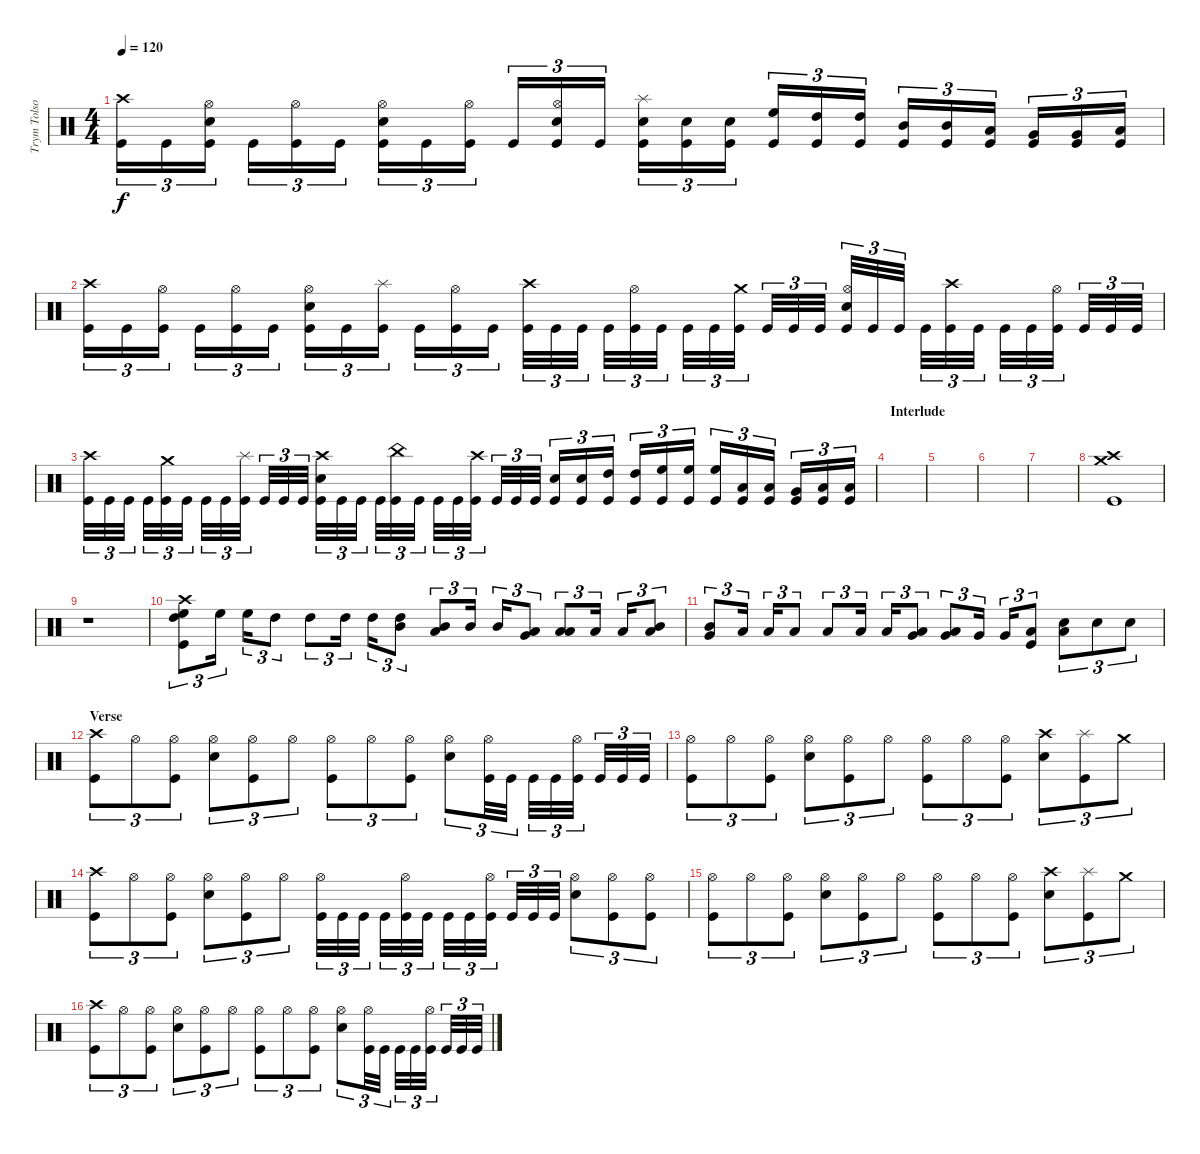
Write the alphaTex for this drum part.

\track ("Trym Tolson" "Trym Tolso") {instrument percussion}
\staff {score}
\articulation defaults
\ts (4 4)
\tempo 120
\clef neutral
\ks c
("Crash high (hit)" "Kick (hit)").16{tu (3 2) dy f} "Kick (hit)".16{tu (3 2)} ("Hi-Hat (open)" "Electric Snare (hit)" "Kick (hit)").16{tu (3 2)} "Kick (hit)".16{tu (3 2)} ("Hi-Hat (open)" "Kick (hit)").16{tu (3 2)} "Kick (hit)".16{tu (3 2)} ("Hi-Hat (open)" "Electric Snare (hit)" "Kick (hit)").16{tu (3 2)} "Kick (hit)".16{tu (3 2)} ("Hi-Hat (open)" "Kick (hit)").16{tu (3 2)} "Kick (hit)".16{tu (3 2)} ("Hi-Hat (open)" "Electric Snare (hit)" "Kick (hit)").16{tu (3 2)} "Kick (hit)".16{tu (3 2)} ("Splash (hit)" "Electric Snare (hit)" "Kick (hit)").16{tu (3 2)} ("Electric Snare (hit)" "Kick (hit)").16{tu (3 2)} ("Electric Snare (hit)" "Kick (hit)").16{tu (3 2)} ("High Floor Tom (hit)" "Kick (hit)").16{tu (3 2)} ("High Tom (hit)" "Kick (hit)").16{tu (3 2)} ("High Tom (hit)" "Kick (hit)").16{tu (3 2)} ("Mid Tom (hit)" "Kick (hit)").16{tu (3 2)} ("Mid Tom (hit)" "Kick (hit)").16{tu (3 2)} ("Low Tom (hit)" "Kick (hit)").16{tu (3 2)} ("Very Low Tom (hit)" "Kick (hit)").16{tu (3 2)} ("Very Low Tom (hit)" "Kick (hit)").16{tu (3 2)} ("Low Floor Tom (hit)" "Kick (hit)").16{tu (3 2)} |
("Crash high (hit)" "Kick (hit)").16{tu (3 2)} "Kick (hit)".16{tu (3 2)} ("Hi-Hat (open)" "Kick (hit)").16{tu (3 2)} "Kick (hit)".16{tu (3 2)} ("Hi-Hat (open)" "Kick (hit)").16{tu (3 2)} "Kick (hit)".16{tu (3 2)} ("Hi-Hat (open)" "Electric Snare (hit)" "Kick (hit)").16{tu (3 2)} "Kick (hit)".16{tu (3 2)} ("Splash (hit)" "Kick (hit)").16{tu (3 2)} "Kick (hit)".16{tu (3 2)} ("Hi-Hat (open)" "Kick (hit)").16{tu (3 2)} "Kick (hit)".16{tu (3 2)} ("Crash high (hit)" "Kick (hit)").32{tu (3 2)} "Kick (hit)".32{tu (3 2)} "Kick (hit)".32{tu (3 2)} "Kick (hit)".32{tu (3 2)} ("Hi-Hat (open)" "Kick (hit)").32{tu (3 2)} "Kick (hit)".32{tu (3 2)} "Kick (hit)".32{tu (3 2)} "Kick (hit)".32{tu (3 2)} ("Crash medium (hit)" "Kick (hit)").32{tu (3 2)} "Kick (hit)".32{tu (3 2)} "Kick (hit)".32{tu (3 2)} "Kick (hit)".32{tu (3 2)} ("Hi-Hat (open)" "Electric Snare (hit)" "Kick (hit)").32{tu (3 2)} "Kick (hit)".32{tu (3 2)} "Kick (hit)".32{tu (3 2)} "Kick (hit)".32{tu (3 2)} ("Crash high (hit)" "Kick (hit)").32{tu (3 2)} "Kick (hit)".32{tu (3 2)} "Kick (hit)".32{tu (3 2)} "Kick (hit)".32{tu (3 2)} ("Hi-Hat (open)" "Kick (hit)").32{tu (3 2)} "Kick (hit)".32{tu (3 2)} "Kick (hit)".32{tu (3 2)} "Kick (hit)".32{tu (3 2)} |
("Crash high (hit)" "Kick (hit)").32{tu (3 2)} "Kick (hit)".32{tu (3 2)} "Kick (hit)".32{tu (3 2)} "Kick (hit)".32{tu (3 2)} ("Crash medium (hit)" "Kick (hit)").32{tu (3 2)} "Kick (hit)".32{tu (3 2)} "Kick (hit)".32{tu (3 2)} "Kick (hit)".32{tu (3 2)} ("Splash (hit)" "Kick (hit)").32{tu (3 2)} "Kick (hit)".32{tu (3 2)} "Kick (hit)".32{tu (3 2)} "Kick (hit)".32{tu (3 2)} ("Crash high (hit)" "Electric Snare (hit)" "Kick (hit)").32{tu (3 2)} "Kick (hit)".32{tu (3 2)} "Kick (hit)".32{tu (3 2)} "Kick (hit)".32{tu (3 2)} ("China (hit)" "Kick (hit)").32{tu (3 2)} "Kick (hit)".32{tu (3 2)} "Kick (hit)".32{tu (3 2)} "Kick (hit)".32{tu (3 2)} ("Crash high (hit)" "Kick (hit)").32{tu (3 2)} "Kick (hit)".32{tu (3 2)} "Kick (hit)".32{tu (3 2)} "Kick (hit)".32{tu (3 2)} ("Electric Snare (hit)" "Kick (hit)").16{tu (3 2)} ("Electric Snare (hit)" "Kick (hit)").16{tu (3 2)} ("High Tom (hit)" "Kick (hit)").16{tu (3 2)} ("High Tom (hit)" "Kick (hit)").16{tu (3 2)} ("High Floor Tom (hit)" "Kick (hit)").16{tu (3 2)} ("High Floor Tom (hit)" "Kick (hit)").16{tu (3 2)} ("High Floor Tom (hit)" "Kick (hit)").16{tu (3 2)} ("Low Tom (hit)" "Kick (hit)").16{tu (3 2)} ("Low Tom (hit)" "Kick (hit)").16{tu (3 2)} ("Very Low Tom (hit)" "Kick (hit)").16{tu (3 2)} ("Low Floor Tom (hit)" "Kick (hit)").16{tu (3 2)} ("Low Floor Tom (hit)" "Kick (hit)").16{tu (3 2)} |
\section ("" "Interlude")
|
|
|
|
("Crash high (hit)" "Crash medium (hit)" "Kick (hit)").1 |
r.1 |
("Crash high (hit)" "High Tom (hit)" "High Floor Tom (hit)" "Kick (hit)").8{tu (3 2)} "High Floor Tom (hit)".16{tu (3 2)} "High Floor Tom (hit)".16{tu (3 2)} "High Tom (hit)".8{tu (3 2)} "High Tom (hit)".8{tu (3 2)} "High Tom (hit)".16{tu (3 2)} "High Tom (hit)".16{tu (3 2)} ("Mid Tom (hit)" "High Tom (hit)").8{tu (3 2)} ("Mid Tom (hit)" "Low Tom (hit)").8{tu (3 2)} "Mid Tom (hit)".16{tu (3 2)} "Mid Tom (hit)".16{tu (3 2)} ("Low Tom (hit)" "Very Low Tom (hit)").8{tu (3 2)} ("Low Tom (hit)" "Low Floor Tom (hit)").8{tu (3 2)} "Low Tom (hit)".16{tu (3 2)} "Low Tom (hit)".16{tu (3 2)} ("Mid Tom (hit)" "Low Tom (hit)").8{tu (3 2)} |
("Mid Tom (hit)" "Very Low Tom (hit)").8{tu (3 2)} "Low Tom (hit)".16{tu (3 2)} "Low Tom (hit)".16{tu (3 2)} "Low Tom (hit)".8{tu (3 2)} "Low Tom (hit)".8{tu (3 2)} "Low Tom (hit)".16{tu (3 2)} "Low Tom (hit)".16{tu (3 2)} ("Very Low Tom (hit)" "Low Floor Tom (hit)").8{tu (3 2)} ("Very Low Tom (hit)" "Low Tom (hit)").8{tu (3 2)} "Very Low Tom (hit)".16{tu (3 2)} "Very Low Tom (hit)".16{tu (3 2)} ("Low Floor Tom (hit)" "Kick (hit)").8{tu (3 2)} ("Low Floor Tom (hit)" "Electric Snare (hit)").8{tu (3 2)} "Electric Snare (hit)".8{tu (3 2)} "Electric Snare (hit)".8{tu (3 2)} |
\section ("" "Verse")
("Crash high (hit)" "Kick (hit)").8{tu (3 2)} "Hi-Hat (open)".8{tu (3 2)} ("Hi-Hat (open)" "Kick (hit)").8{tu (3 2)} ("Hi-Hat (open)" "Electric Snare (hit)").8{tu (3 2)} ("Hi-Hat (open)" "Kick (hit)").8{tu (3 2)} "Hi-Hat (open)".8{tu (3 2)} ("Hi-Hat (open)" "Kick (hit)").8{tu (3 2)} "Hi-Hat (open)".8{tu (3 2)} ("Hi-Hat (open)" "Kick (hit)").8{tu (3 2)} ("Hi-Hat (open)" "Electric Snare (hit)").8{tu (3 2)} ("Hi-Hat (open)" "Kick (hit)").32{tu (3 2)} "Kick (hit)".32{tu (3 2)} "Kick (hit)".32{tu (3 2)} "Kick (hit)".32{tu (3 2)} ("Hi-Hat (open)" "Kick (hit)").32{tu (3 2)} "Kick (hit)".32{tu (3 2)} "Kick (hit)".32{tu (3 2)} "Kick (hit)".32{tu (3 2)} |
("Hi-Hat (open)" "Kick (hit)").8{tu (3 2)} "Hi-Hat (open)".8{tu (3 2)} ("Hi-Hat (open)" "Kick (hit)").8{tu (3 2)} ("Hi-Hat (open)" "Electric Snare (hit)").8{tu (3 2)} ("Hi-Hat (open)" "Kick (hit)").8{tu (3 2)} "Hi-Hat (open)".8{tu (3 2)} ("Hi-Hat (open)" "Kick (hit)").8{tu (3 2)} "Hi-Hat (open)".8{tu (3 2)} ("Hi-Hat (open)" "Kick (hit)").8{tu (3 2)} ("Crash high (hit)" "Electric Snare (hit)").8{tu (3 2)} ("Splash (hit)" "Kick (hit)").8{tu (3 2)} "Crash medium (hit)".8{tu (3 2)} |
("Crash high (hit)" "Kick (hit)").8{tu (3 2)} "Hi-Hat (open)".8{tu (3 2)} ("Hi-Hat (open)" "Kick (hit)").8{tu (3 2)} ("Hi-Hat (open)" "Electric Snare (hit)").8{tu (3 2)} ("Hi-Hat (open)" "Kick (hit)").8{tu (3 2)} "Hi-Hat (open)".8{tu (3 2)} ("Hi-Hat (open)" "Kick (hit)").32{tu (3 2)} "Kick (hit)".32{tu (3 2)} "Kick (hit)".32{tu (3 2)} "Kick (hit)".32{tu (3 2)} ("Hi-Hat (open)" "Kick (hit)").32{tu (3 2)} "Kick (hit)".32{tu (3 2)} "Kick (hit)".32{tu (3 2)} "Kick (hit)".32{tu (3 2)} ("Hi-Hat (open)" "Kick (hit)").32{tu (3 2)} "Kick (hit)".32{tu (3 2)} "Kick (hit)".32{tu (3 2)} "Kick (hit)".32{tu (3 2)} ("Hi-Hat (open)" "Electric Snare (hit)").8{tu (3 2)} ("Hi-Hat (open)" "Kick (hit)").8{tu (3 2)} ("Hi-Hat (open)" "Kick (hit)").8{tu (3 2)} |
("Hi-Hat (open)" "Kick (hit)").8{tu (3 2)} "Hi-Hat (open)".8{tu (3 2)} ("Hi-Hat (open)" "Kick (hit)").8{tu (3 2)} ("Hi-Hat (open)" "Electric Snare (hit)").8{tu (3 2)} ("Hi-Hat (open)" "Kick (hit)").8{tu (3 2)} "Hi-Hat (open)".8{tu (3 2)} ("Hi-Hat (open)" "Kick (hit)").8{tu (3 2)} "Hi-Hat (open)".8{tu (3 2)} ("Hi-Hat (open)" "Kick (hit)").8{tu (3 2)} ("Crash high (hit)" "Electric Snare (hit)").8{tu (3 2)} ("Splash (hit)" "Kick (hit)").8{tu (3 2)} "Crash medium (hit)".8{tu (3 2)} |
("Crash high (hit)" "Kick (hit)").8{tu (3 2)} "Hi-Hat (open)".8{tu (3 2)} ("Hi-Hat (open)" "Kick (hit)").8{tu (3 2)} ("Hi-Hat (open)" "Electric Snare (hit)").8{tu (3 2)} ("Hi-Hat (open)" "Kick (hit)").8{tu (3 2)} "Hi-Hat (open)".8{tu (3 2)} ("Hi-Hat (open)" "Kick (hit)").8{tu (3 2)} "Hi-Hat (open)".8{tu (3 2)} ("Hi-Hat (open)" "Kick (hit)").8{tu (3 2)} ("Hi-Hat (open)" "Electric Snare (hit)").8{tu (3 2)} ("Hi-Hat (open)" "Kick (hit)").32{tu (3 2)} "Kick (hit)".32{tu (3 2)} "Kick (hit)".32{tu (3 2)} "Kick (hit)".32{tu (3 2)} ("Hi-Hat (open)" "Kick (hit)").32{tu (3 2)} "Kick (hit)".32{tu (3 2)} "Kick (hit)".32{tu (3 2)} "Kick (hit)".32{tu (3 2)}
